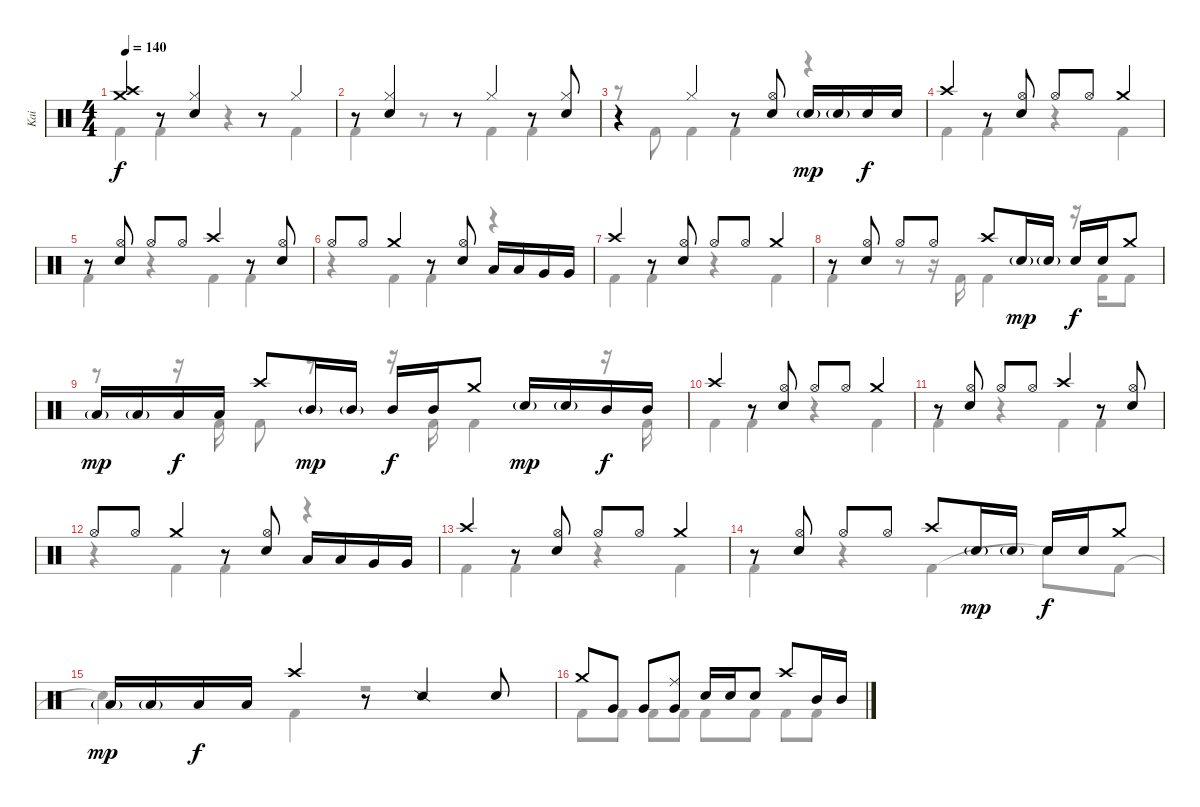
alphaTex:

\track ("Kai" "Kai") {instrument percussion}
\staff {score}
\articulation defaults
\voice
\ts (4 4)
\tempo 140
\clef neutral
\ks c
("Crash medium (hit)" "Crash high (hit)").4{dy f} r.8 ("Hi-Hat (closed)" "Snare (hit) 2").4 r.8 "Hi-Hat (closed)".4 |
r.8 ("Hi-Hat (closed)" "Snare (hit) 2").4 r.8 "Hi-Hat (closed)".4 r.8 ("Hi-Hat (closed)" "Snare (hit) 2").8 |
r.4 "Hi-Hat (closed)".4 r.8 ("Hi-Hat (open)" "Snare (hit) 2").8 "Snare (hit) 2"{g}.16{dy mp} "Snare (hit) 2"{g}.16 "Snare (hit) 2".16{dy f} "Snare (hit) 2".16 |
"Crash high (hit)".4 r.8 ("Hi-Hat (open)" "Snare (hit) 2").8 "Hi-Hat (open)".8 "Hi-Hat (open)".8 "Crash medium (hit)".4 |
r.8 ("Hi-Hat (open)" "Snare (hit) 2").8 "Hi-Hat (open)".8 "Hi-Hat (open)".8 "Crash high (hit)".4 r.8 ("Hi-Hat (open)" "Snare (hit) 2").8 |
"Hi-Hat (open)".8 "Hi-Hat (open)".8 "Crash medium (hit)".4 r.8 ("Hi-Hat (open)" "Snare (hit) 2").8 "Low Tom (hit)".16 "Low Tom (hit)".16 "Very Low Tom (hit)".16 "Very Low Tom (hit)".16 |
"Crash high (hit)".4 r.8 ("Hi-Hat (open)" "Snare (hit) 2").8 "Hi-Hat (open)".8 "Hi-Hat (open)".8 "Crash medium (hit)".4 |
r.8 ("Hi-Hat (open)" "Snare (hit) 2").8 "Hi-Hat (open)".8 "Hi-Hat (open)".8 "Crash high (hit)".8 "Snare (hit) 2"{g}.16{dy mp} "Snare (hit) 2"{g}.16 "Snare (hit) 2".16{dy f} "Snare (hit) 2".16 "Crash medium (hit)".8 |
"Low Tom (hit)"{g}.16{dy mp} "Low Tom (hit)"{g}.16 "Low Tom (hit)".16{dy f} "Low Tom (hit)".16 "Crash high (hit)".8 "Mid Tom (hit)"{g}.16{dy mp} "Mid Tom (hit)"{g}.16 "Mid Tom (hit)".16{dy f} "Mid Tom (hit)".16 "Crash medium (hit)".8 "Snare (hit) 2"{g}.16{dy mp} "Snare (hit) 2"{g}.16 "Mid Tom (hit)".16{dy f} "Mid Tom (hit)".16 |
"Crash high (hit)".4 r.8 ("Hi-Hat (open)" "Snare (hit) 2").8 "Hi-Hat (open)".8 "Hi-Hat (open)".8 "Crash medium (hit)".4 |
r.8 ("Hi-Hat (open)" "Snare (hit) 2").8 "Hi-Hat (open)".8 "Hi-Hat (open)".8 "Crash high (hit)".4 r.8 ("Hi-Hat (open)" "Snare (hit) 2").8 |
"Hi-Hat (open)".8 "Hi-Hat (open)".8 "Crash medium (hit)".4 r.8 ("Hi-Hat (open)" "Snare (hit) 2").8 "Low Tom (hit)".16 "Low Tom (hit)".16 "Very Low Tom (hit)".16 "Very Low Tom (hit)".16 |
"Crash high (hit)".4 r.8 ("Hi-Hat (open)" "Snare (hit) 2").8 "Hi-Hat (open)".8 "Hi-Hat (open)".8 "Crash medium (hit)".4 |
r.8 ("Hi-Hat (open)" "Snare (hit) 2").8 "Hi-Hat (open)".8 "Hi-Hat (open)".8 "Crash high (hit)".8 "Snare (hit) 2"{g}.16{dy mp} "Snare (hit) 2"{g}.16 "Snare (hit) 2".16{dy f} "Snare (hit) 2".16 "Crash medium (hit)".8 |
"Low Tom (hit)"{g}.16{dy mp} "Low Tom (hit)"{g}.16 "Low Tom (hit)".16{dy f} "Low Tom (hit)".16 "Crash high (hit)".4 r.8 "Snare (side stick) 2".4 "Snare (hit) 2".8 |
"Crash medium (hit)".8 "Very Low Tom (hit)".8 "Very Low Tom (hit)".8 ("Ride (middle)" "Very Low Tom (hit)").8 "Snare (hit) 2".16 "Snare (hit) 2".16 "Snare (hit) 2".8 "Crash high (hit)".8 "Mid Tom (hit)".16 "Mid Tom (hit)".16
\voice
\clef neutral
\ottava regular
\simile none
\ks c "Kick (hit) 2".4{dy f} "Kick (hit) 2".4
r.4 "Kick (hit) 2".4 |
"Kick (hit) 2".4 r.8 r.8 "Kick (hit) 2".4 "Kick (hit) 2".4 |
r.8 "Kick (hit) 2".8 "Kick (hit) 2".4 "Kick (hit) 2".4 r.4 |
"Kick (hit) 2".4 "Kick (hit) 2".4 r.4 "Kick (hit) 2".4 |
"Kick (hit) 2".4 r.4 "Kick (hit) 2".4 "Kick (hit) 2".4 |
r.4 "Kick (hit) 2".4 "Kick (hit) 2".4 r.4 |
"Kick (hit) 2".4 "Kick (hit) 2".4 r.4 "Kick (hit) 2".4 |
"Kick (hit) 2".4 r.8 r.16 "Kick (hit) 2".16 "Kick (hit) 2".4 r.16 "Kick (hit) 2".16 "Kick (hit) 2".8 |
r.8 r.16 "Kick (hit) 2".16 "Kick (hit) 2".8 r.8 r.16 "Kick (hit) 2".16 "Kick (hit) 2".4 r.16 "Kick (hit) 2".16 |
"Kick (hit) 2".4 "Kick (hit) 2".4 r.4 "Kick (hit) 2".4 |
"Kick (hit) 2".4 r.4 "Kick (hit) 2".4 "Kick (hit) 2".4 |
r.4 "Kick (hit) 2".4 "Kick (hit) 2".4 r.4 |
"Kick (hit) 2".4 "Kick (hit) 2".4 r.4 "Kick (hit) 2".4 |
"Kick (hit) 2".4 r.4 "Kick (hit) 2".4 "Snare (hit)"{t}.8 "Kick (hit) 2".8 |
"Snare (hit)"{t}.4 "Kick (hit) 2".4 r.2 |
"Kick (hit) 2".8 "Kick (hit) 2".8 "Kick (hit) 2".8 "Kick (hit) 2".8 "Kick (hit) 2".8 "Kick (hit) 2".8 "Kick (hit) 2".8 "Kick (hit) 2".8
